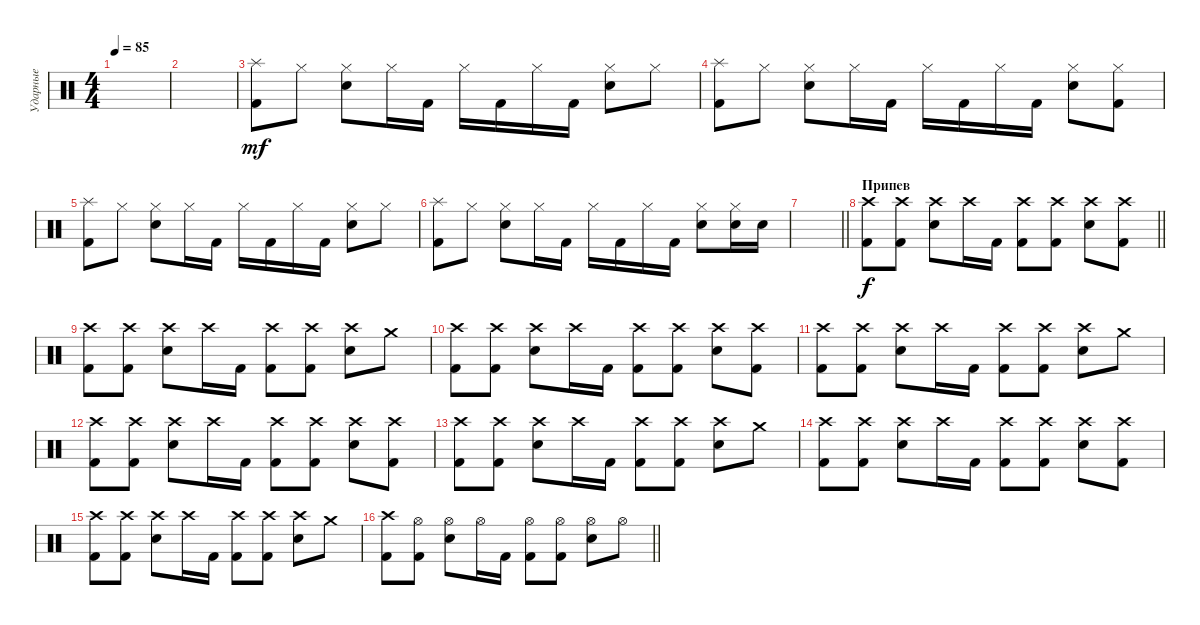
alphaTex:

\track ("Ударные" "Ударные") {instrument percussion}
\staff {score}
\articulation defaults
\ts (4 4)
\tempo 85
\clef neutral
\ks c
|
|
("Splash (hit)" "Kick (hit) 2").8{dy mf} "Hi-Hat (closed)".8 ("Hi-Hat (closed)" "Snare (hit) 2").8 "Hi-Hat (closed)".16 "Kick (hit) 2".16 "Hi-Hat (closed)".16 "Kick (hit) 2".16 "Hi-Hat (closed)".16 "Kick (hit) 2".16 ("Hi-Hat (closed)" "Snare (hit) 2").8 "Hi-Hat (closed)".8 |
("Splash (hit)" "Kick (hit) 2").8 "Hi-Hat (closed)".8 ("Hi-Hat (closed)" "Snare (hit) 2").8 "Hi-Hat (closed)".16 "Kick (hit) 2".16 "Hi-Hat (closed)".16 "Kick (hit) 2".16 "Hi-Hat (closed)".16 "Kick (hit) 2".16 ("Hi-Hat (closed)" "Snare (hit) 2").8 ("Hi-Hat (closed)" "Kick (hit) 2").8 |
("Splash (hit)" "Kick (hit) 2").8 "Hi-Hat (closed)".8 ("Hi-Hat (closed)" "Snare (hit) 2").8 "Hi-Hat (closed)".16 "Kick (hit) 2".16 "Hi-Hat (closed)".16 "Kick (hit) 2".16 "Hi-Hat (closed)".16 "Kick (hit) 2".16 ("Hi-Hat (closed)" "Snare (hit) 2").8 "Hi-Hat (closed)".8 |
("Splash (hit)" "Kick (hit) 2").8 "Hi-Hat (closed)".8 ("Hi-Hat (closed)" "Snare (hit) 2").8 "Hi-Hat (closed)".16 "Kick (hit) 2".16 "Hi-Hat (closed)".16 "Kick (hit) 2".16 "Hi-Hat (closed)".16 "Kick (hit) 2".16 ("Hi-Hat (closed)" "Snare (hit) 2").8 ("Hi-Hat (closed)" "Snare (hit) 2").16 "Snare (hit) 2".16 |
\barLineRight lightlight
|
\section ("" "Припев")
\barLineRight lightlight
("Crash high (hit)" "Kick (hit) 2").8{dy f} ("Crash high (hit)" "Kick (hit) 2").8 ("Crash high (hit)" "Snare (hit) 2").8 "Crash high (hit)".16 "Kick (hit) 2".16 ("Crash high (hit)" "Kick (hit) 2").8 ("Crash high (hit)" "Kick (hit) 2").8 ("Crash high (hit)" "Snare (hit) 2").8 ("Crash high (hit)" "Kick (hit) 2").8 |
\section ("" "")
("Crash high (hit)" "Kick (hit) 2").8 ("Crash high (hit)" "Kick (hit) 2").8 ("Crash high (hit)" "Snare (hit) 2").8 "Crash high (hit)".16 "Kick (hit) 2".16 ("Crash high (hit)" "Kick (hit) 2").8 ("Crash high (hit)" "Kick (hit) 2").8 ("Crash high (hit)" "Snare (hit) 2").8 "Crash medium (hit)".8 |
("Crash high (hit)" "Kick (hit) 2").8 ("Crash high (hit)" "Kick (hit) 2").8 ("Crash high (hit)" "Snare (hit) 2").8 "Crash high (hit)".16 "Kick (hit) 2".16 ("Crash high (hit)" "Kick (hit) 2").8 ("Crash high (hit)" "Kick (hit) 2").8 ("Crash high (hit)" "Snare (hit) 2").8 ("Crash high (hit)" "Kick (hit) 2").8 |
("Crash high (hit)" "Kick (hit) 2").8 ("Crash high (hit)" "Kick (hit) 2").8 ("Crash high (hit)" "Snare (hit) 2").8 "Crash high (hit)".16 "Kick (hit) 2".16 ("Crash high (hit)" "Kick (hit) 2").8 ("Crash high (hit)" "Kick (hit) 2").8 ("Crash high (hit)" "Snare (hit) 2").8 "Crash medium (hit)".8 |
("Crash high (hit)" "Kick (hit) 2").8 ("Crash high (hit)" "Kick (hit) 2").8 ("Crash high (hit)" "Snare (hit) 2").8 "Crash high (hit)".16 "Kick (hit) 2".16 ("Crash high (hit)" "Kick (hit) 2").8 ("Crash high (hit)" "Kick (hit) 2").8 ("Crash high (hit)" "Snare (hit) 2").8 ("Crash high (hit)" "Kick (hit) 2").8 |
("Crash high (hit)" "Kick (hit) 2").8 ("Crash high (hit)" "Kick (hit) 2").8 ("Crash high (hit)" "Snare (hit) 2").8 "Crash high (hit)".16 "Kick (hit) 2".16 ("Crash high (hit)" "Kick (hit) 2").8 ("Crash high (hit)" "Kick (hit) 2").8 ("Crash high (hit)" "Snare (hit) 2").8 "Crash medium (hit)".8 |
("Crash high (hit)" "Kick (hit) 2").8 ("Crash high (hit)" "Kick (hit) 2").8 ("Crash high (hit)" "Snare (hit) 2").8 "Crash high (hit)".16 "Kick (hit) 2".16 ("Crash high (hit)" "Kick (hit) 2").8 ("Crash high (hit)" "Kick (hit) 2").8 ("Crash high (hit)" "Snare (hit) 2").8 ("Crash high (hit)" "Kick (hit) 2").8 |
("Crash high (hit)" "Kick (hit) 2").8 ("Crash high (hit)" "Kick (hit) 2").8 ("Crash high (hit)" "Snare (hit) 2").8 "Crash high (hit)".16 "Kick (hit) 2".16 ("Crash high (hit)" "Kick (hit) 2").8 ("Crash high (hit)" "Kick (hit) 2").8 ("Crash high (hit)" "Snare (hit) 2").8 "Crash medium (hit)".8 |
\barLineRight lightlight
("Crash high (hit)" "Kick (hit) 2").8 ("Hi-Hat (open)" "Kick (hit) 2").8 ("Hi-Hat (open)" "Snare (hit) 2").8 "Hi-Hat (open)".16 "Kick (hit) 2".16 ("Hi-Hat (open)" "Kick (hit) 2").8 ("Hi-Hat (open)" "Kick (hit) 2").8 ("Hi-Hat (open)" "Snare (hit) 2").8 "Hi-Hat (open)".8
